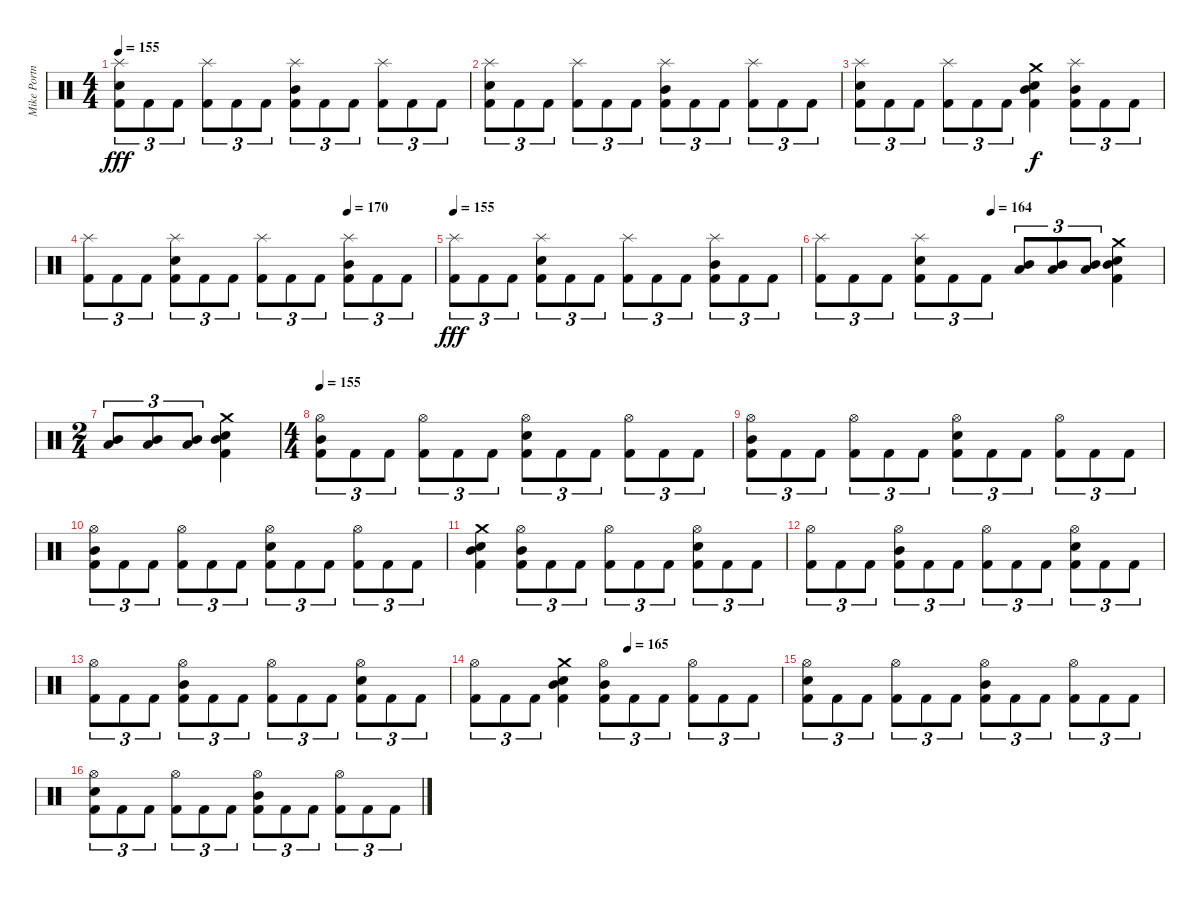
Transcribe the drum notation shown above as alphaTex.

\track ("Mike Portnoy" "Mike Portn") {instrument percussion}
\staff {score}
\articulation defaults
\ts (4 4)
\tempo 155
\clef neutral
\ks c
("Splash (hit)" "Electric Snare (hit)" "Kick (hit) 2").8{tu (3 2) dy fff} "Kick (hit) 2".8{tu (3 2)} "Kick (hit) 2".8{tu (3 2)} ("Splash (hit)" "Kick (hit) 2").8{tu (3 2)} "Kick (hit) 2".8{tu (3 2)} "Kick (hit) 2".8{tu (3 2)} ("Splash (hit)" "Mid Tom (hit)" "Kick (hit) 2").8{tu (3 2)} "Kick (hit) 2".8{tu (3 2)} "Kick (hit) 2".8{tu (3 2)} ("Splash (hit)" "Kick (hit) 2").8{tu (3 2)} "Kick (hit) 2".8{tu (3 2)} "Kick (hit) 2".8{tu (3 2)} |
("Splash (hit)" "Electric Snare (hit)" "Kick (hit) 2").8{tu (3 2)} "Kick (hit) 2".8{tu (3 2)} "Kick (hit) 2".8{tu (3 2)} ("Splash (hit)" "Kick (hit) 2").8{tu (3 2)} "Kick (hit) 2".8{tu (3 2)} "Kick (hit) 2".8{tu (3 2)} ("Splash (hit)" "Mid Tom (hit)" "Kick (hit) 2").8{tu (3 2)} "Kick (hit) 2".8{tu (3 2)} "Kick (hit) 2".8{tu (3 2)} ("Splash (hit)" "Kick (hit) 2").8{tu (3 2)} "Kick (hit) 2".8{tu (3 2)} "Kick (hit) 2".8{tu (3 2)} |
("Splash (hit)" "Electric Snare (hit)" "Kick (hit) 2").8{tu (3 2)} "Kick (hit) 2".8{tu (3 2)} "Kick (hit) 2".8{tu (3 2)} ("Splash (hit)" "Kick (hit) 2").8{tu (3 2)} "Kick (hit) 2".8{tu (3 2)} "Kick (hit) 2".8{tu (3 2)} ("Crash medium (hit)" "Mid Tom (hit)" "Electric Snare (hit)" "Kick (hit) 2").4{dy f} ("Splash (hit)" "Mid Tom (hit)" "Kick (hit) 2").8{tu (3 2)} "Kick (hit) 2".8{tu (3 2)} "Kick (hit) 2".8{tu (3 2)} |
\tempo (170 0.75)
("Splash (hit)" "Kick (hit) 2").8{tu (3 2)} "Kick (hit) 2".8{tu (3 2)} "Kick (hit) 2".8{tu (3 2)} ("Splash (hit)" "Electric Snare (hit)" "Kick (hit) 2").8{tu (3 2)} "Kick (hit) 2".8{tu (3 2)} "Kick (hit) 2".8{tu (3 2)} ("Splash (hit)" "Kick (hit) 2").8{tu (3 2)} "Kick (hit) 2".8{tu (3 2)} "Kick (hit) 2".8{tu (3 2)} ("Splash (hit)" "Mid Tom (hit)" "Kick (hit) 2").8{tu (3 2)} "Kick (hit) 2".8{tu (3 2)} "Kick (hit) 2".8{tu (3 2)} |
\tempo 155
("Splash (hit)" "Kick (hit) 2").8{tu (3 2) dy fff} "Kick (hit) 2".8{tu (3 2)} "Kick (hit) 2".8{tu (3 2)} ("Splash (hit)" "Electric Snare (hit)" "Kick (hit) 2").8{tu (3 2)} "Kick (hit) 2".8{tu (3 2)} "Kick (hit) 2".8{tu (3 2)} ("Splash (hit)" "Kick (hit) 2").8{tu (3 2)} "Kick (hit) 2".8{tu (3 2)} "Kick (hit) 2".8{tu (3 2)} ("Splash (hit)" "Mid Tom (hit)" "Kick (hit) 2").8{tu (3 2)} "Kick (hit) 2".8{tu (3 2)} "Kick (hit) 2".8{tu (3 2)} |
\tempo (164 0.5)
("Splash (hit)" "Kick (hit) 2").8{tu (3 2)} "Kick (hit) 2".8{tu (3 2)} "Kick (hit) 2".8{tu (3 2)} ("Splash (hit)" "Electric Snare (hit)" "Kick (hit) 2").8{tu (3 2)} "Kick (hit) 2".8{tu (3 2)} "Kick (hit) 2".8{tu (3 2)} ("Mid Tom (hit)" "Low Tom (hit)").8{tu (3 2)} ("Mid Tom (hit)" "Low Tom (hit)").8{tu (3 2)} ("Mid Tom (hit)" "Low Tom (hit)").8{tu (3 2)} ("Crash medium (hit)" "Mid Tom (hit)" "Electric Snare (hit)" "Kick (hit) 2").4 |
\ts (2 4)
("Mid Tom (hit)" "Low Tom (hit)").8{tu (3 2)} ("Mid Tom (hit)" "Low Tom (hit)").8{tu (3 2)} ("Mid Tom (hit)" "Low Tom (hit)").8{tu (3 2)} ("Crash medium (hit)" "Mid Tom (hit)" "Electric Snare (hit)" "Kick (hit) 2").4 |
\ts (4 4)
\tempo 155
("Hi-Hat (open)" "Mid Tom (hit)" "Kick (hit) 2").8{tu (3 2)} "Kick (hit) 2".8{tu (3 2)} "Kick (hit) 2".8{tu (3 2)} ("Hi-Hat (open)" "Kick (hit) 2").8{tu (3 2)} "Kick (hit) 2".8{tu (3 2)} "Kick (hit) 2".8{tu (3 2)} ("Hi-Hat (open)" "Electric Snare (hit)" "Kick (hit) 2").8{tu (3 2)} "Kick (hit) 2".8{tu (3 2)} "Kick (hit) 2".8{tu (3 2)} ("Hi-Hat (open)" "Kick (hit) 2").8{tu (3 2)} "Kick (hit) 2".8{tu (3 2)} "Kick (hit) 2".8{tu (3 2)} |
("Hi-Hat (open)" "Mid Tom (hit)" "Kick (hit) 2").8{tu (3 2)} "Kick (hit) 2".8{tu (3 2)} "Kick (hit) 2".8{tu (3 2)} ("Hi-Hat (open)" "Kick (hit) 2").8{tu (3 2)} "Kick (hit) 2".8{tu (3 2)} "Kick (hit) 2".8{tu (3 2)} ("Hi-Hat (open)" "Electric Snare (hit)" "Kick (hit) 2").8{tu (3 2)} "Kick (hit) 2".8{tu (3 2)} "Kick (hit) 2".8{tu (3 2)} ("Hi-Hat (open)" "Kick (hit) 2").8{tu (3 2)} "Kick (hit) 2".8{tu (3 2)} "Kick (hit) 2".8{tu (3 2)} |
("Hi-Hat (open)" "Mid Tom (hit)" "Kick (hit) 2").8{tu (3 2)} "Kick (hit) 2".8{tu (3 2)} "Kick (hit) 2".8{tu (3 2)} ("Hi-Hat (open)" "Kick (hit) 2").8{tu (3 2)} "Kick (hit) 2".8{tu (3 2)} "Kick (hit) 2".8{tu (3 2)} ("Hi-Hat (open)" "Electric Snare (hit)" "Kick (hit) 2").8{tu (3 2)} "Kick (hit) 2".8{tu (3 2)} "Kick (hit) 2".8{tu (3 2)} ("Hi-Hat (open)" "Kick (hit) 2").8{tu (3 2)} "Kick (hit) 2".8{tu (3 2)} "Kick (hit) 2".8{tu (3 2)} |
("Crash medium (hit)" "Mid Tom (hit)" "Electric Snare (hit)" "Kick (hit) 2").4 ("Hi-Hat (open)" "Mid Tom (hit)" "Kick (hit) 2").8{tu (3 2)} "Kick (hit) 2".8{tu (3 2)} "Kick (hit) 2".8{tu (3 2)} ("Hi-Hat (open)" "Kick (hit) 2").8{tu (3 2)} "Kick (hit) 2".8{tu (3 2)} "Kick (hit) 2".8{tu (3 2)} ("Hi-Hat (open)" "Electric Snare (hit)" "Kick (hit) 2").8{tu (3 2)} "Kick (hit) 2".8{tu (3 2)} "Kick (hit) 2".8{tu (3 2)} |
("Hi-Hat (open)" "Kick (hit) 2").8{tu (3 2)} "Kick (hit) 2".8{tu (3 2)} "Kick (hit) 2".8{tu (3 2)} ("Hi-Hat (open)" "Mid Tom (hit)" "Kick (hit) 2").8{tu (3 2)} "Kick (hit) 2".8{tu (3 2)} "Kick (hit) 2".8{tu (3 2)} ("Hi-Hat (open)" "Kick (hit) 2").8{tu (3 2)} "Kick (hit) 2".8{tu (3 2)} "Kick (hit) 2".8{tu (3 2)} ("Hi-Hat (open)" "Electric Snare (hit)" "Kick (hit) 2").8{tu (3 2)} "Kick (hit) 2".8{tu (3 2)} "Kick (hit) 2".8{tu (3 2)} |
("Hi-Hat (open)" "Kick (hit) 2").8{tu (3 2)} "Kick (hit) 2".8{tu (3 2)} "Kick (hit) 2".8{tu (3 2)} ("Hi-Hat (open)" "Mid Tom (hit)" "Kick (hit) 2").8{tu (3 2)} "Kick (hit) 2".8{tu (3 2)} "Kick (hit) 2".8{tu (3 2)} ("Hi-Hat (open)" "Kick (hit) 2").8{tu (3 2)} "Kick (hit) 2".8{tu (3 2)} "Kick (hit) 2".8{tu (3 2)} ("Hi-Hat (open)" "Electric Snare (hit)" "Kick (hit) 2").8{tu (3 2)} "Kick (hit) 2".8{tu (3 2)} "Kick (hit) 2".8{tu (3 2)} |
\tempo (165 0.5)
("Hi-Hat (open)" "Kick (hit) 2").8{tu (3 2)} "Kick (hit) 2".8{tu (3 2)} "Kick (hit) 2".8{tu (3 2)} ("Crash medium (hit)" "Mid Tom (hit)" "Electric Snare (hit)" "Kick (hit) 2").4 ("Hi-Hat (open)" "Mid Tom (hit)" "Kick (hit) 2").8{tu (3 2)} "Kick (hit) 2".8{tu (3 2)} "Kick (hit) 2".8{tu (3 2)} ("Hi-Hat (open)" "Kick (hit) 2").8{tu (3 2)} "Kick (hit) 2".8{tu (3 2)} "Kick (hit) 2".8{tu (3 2)} |
("Hi-Hat (open)" "Electric Snare (hit)" "Kick (hit) 2").8{tu (3 2)} "Kick (hit) 2".8{tu (3 2)} "Kick (hit) 2".8{tu (3 2)} ("Hi-Hat (open)" "Kick (hit) 2").8{tu (3 2)} "Kick (hit) 2".8{tu (3 2)} "Kick (hit) 2".8{tu (3 2)} ("Hi-Hat (open)" "Mid Tom (hit)" "Kick (hit) 2").8{tu (3 2)} "Kick (hit) 2".8{tu (3 2)} "Kick (hit) 2".8{tu (3 2)} ("Hi-Hat (open)" "Kick (hit) 2").8{tu (3 2)} "Kick (hit) 2".8{tu (3 2)} "Kick (hit) 2".8{tu (3 2)} |
("Hi-Hat (open)" "Electric Snare (hit)" "Kick (hit) 2").8{tu (3 2)} "Kick (hit) 2".8{tu (3 2)} "Kick (hit) 2".8{tu (3 2)} ("Hi-Hat (open)" "Kick (hit) 2").8{tu (3 2)} "Kick (hit) 2".8{tu (3 2)} "Kick (hit) 2".8{tu (3 2)} ("Hi-Hat (open)" "Mid Tom (hit)" "Kick (hit) 2").8{tu (3 2)} "Kick (hit) 2".8{tu (3 2)} "Kick (hit) 2".8{tu (3 2)} ("Hi-Hat (open)" "Kick (hit) 2").8{tu (3 2)} "Kick (hit) 2".8{tu (3 2)} "Kick (hit) 2".8{tu (3 2)}
